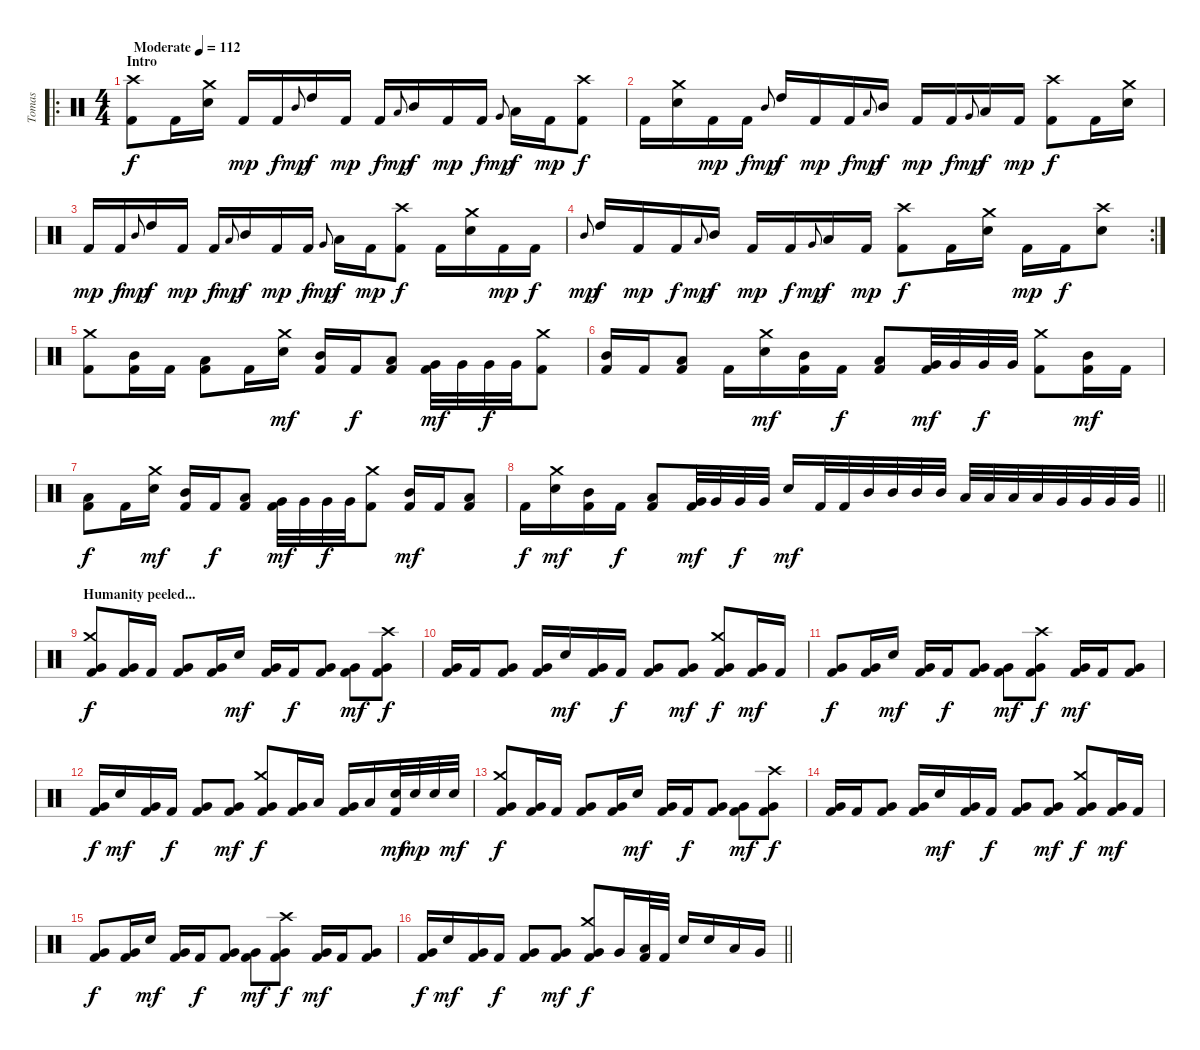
\track ("Tomas" "Tomas") {instrument percussion}
\staff {score}
\articulation defaults
\ro
\ts (4 4)
\section ("" "Intro")
\tempo (112 "Moderate")
\clef neutral
\ks c
("Crash high (hit)" "Kick (hit) 2").8{dy f} "Kick (hit) 2".16 ("Crash medium (hit)" "Electric Snare (hit)").16 "Kick (hit) 2".16{dy mp} "Kick (hit) 2".16{dy f} "Mid Tom (hit)".8{gr onbeat dy mp} "High Tom (hit)".16{dy f} "Kick (hit) 2".16{dy mp} "Kick (hit) 2".16{dy f} "Low Tom (hit)".8{gr onbeat dy mp} "Mid Tom (hit)".16{dy f} "Kick (hit) 2".16{dy mp} "Kick (hit) 2".16{dy f} "Very Low Tom (hit)".8{gr onbeat dy mp} "Low Tom (hit)".16{dy f} "Kick (hit) 2".16{dy mp} ("Crash high (hit)" "Kick (hit) 2").8{dy f} |
"Kick (hit) 2".16 ("Crash medium (hit)" "Electric Snare (hit)").16 "Kick (hit) 2".16{dy mp} "Kick (hit) 2".16{dy f} "Mid Tom (hit)".8{gr onbeat dy mp} "High Tom (hit)".16{dy f} "Kick (hit) 2".16{dy mp} "Kick (hit) 2".16{dy f} "Low Tom (hit)".8{gr onbeat dy mp} "Mid Tom (hit)".16{dy f} "Kick (hit) 2".16{dy mp} "Kick (hit) 2".16{dy f} "Very Low Tom (hit)".8{gr onbeat dy mp} "Low Tom (hit)".16{dy f} "Kick (hit) 2".16{dy mp} ("Crash high (hit)" "Kick (hit) 2").8{dy f} "Kick (hit) 2".16 ("Crash medium (hit)" "Electric Snare (hit)").16 |
"Kick (hit) 2".16{dy mp} "Kick (hit) 2".16{dy f} "Mid Tom (hit)".8{gr onbeat dy mp} "High Tom (hit)".16{dy f} "Kick (hit) 2".16{dy mp} "Kick (hit) 2".16{dy f} "Low Tom (hit)".8{gr onbeat dy mp} "Mid Tom (hit)".16{dy f} "Kick (hit) 2".16{dy mp} "Kick (hit) 2".16{dy f} "Very Low Tom (hit)".8{gr onbeat dy mp} "Low Tom (hit)".16{dy f} "Kick (hit) 2".16{dy mp} ("Crash high (hit)" "Kick (hit) 2").8{dy f} "Kick (hit) 2".16 ("Crash medium (hit)" "Electric Snare (hit)").16 "Kick (hit) 2".16{dy mp} "Kick (hit) 2".16{dy f} |
\rc 2 "Mid Tom (hit)".8{gr onbeat dy mp} "High Tom (hit)".16{dy f} "Kick (hit) 2".16{dy mp} "Kick (hit) 2".16{dy f} "Low Tom (hit)".8{gr onbeat dy mp} "Mid Tom (hit)".16{dy f} "Kick (hit) 2".16{dy mp} "Kick (hit) 2".16{dy f} "Very Low Tom (hit)".8{gr onbeat dy mp} "Low Tom (hit)".16{dy f} "Kick (hit) 2".16{dy mp}
("Crash high (hit)" "Kick (hit) 2").8{dy f} "Kick (hit) 2".16 ("Crash medium (hit)" "Electric Snare (hit)").16 "Kick (hit) 2".16{dy mp} "Kick (hit) 2".16{dy f} ("Crash high (hit)" "Electric Snare (hit)").8 |
("Crash medium (hit)" "Kick (hit) 2").8 ("Mid Tom (hit)" "Kick (hit) 2").16 "Kick (hit) 2".16 ("Low Tom (hit)" "Kick (hit) 2").8 "Kick (hit) 2".16 ("Crash medium (hit)" "Electric Snare (hit)").16{dy mf} ("Mid Tom (hit)" "Kick (hit) 2").16 "Kick (hit) 2".16{dy f} ("Low Tom (hit)" "Kick (hit) 2").8 ("Very Low Tom (hit)" "Kick (hit) 2").32{dy mf} "Very Low Tom (hit)".32 "Very Low Tom (hit)".32{dy f} "Very Low Tom (hit)".32 ("Crash medium (hit)" "Kick (hit) 2").8 |
("Mid Tom (hit)" "Kick (hit) 2").16 "Kick (hit) 2".16 ("Low Tom (hit)" "Kick (hit) 2").8 "Kick (hit) 2".16 ("Crash medium (hit)" "Electric Snare (hit)").16{dy mf} ("Mid Tom (hit)" "Kick (hit) 2").16 "Kick (hit) 2".16{dy f} ("Low Tom (hit)" "Kick (hit) 2").8 ("Very Low Tom (hit)" "Kick (hit) 2").32{dy mf} "Very Low Tom (hit)".32 "Very Low Tom (hit)".32{dy f} "Very Low Tom (hit)".32 ("Crash medium (hit)" "Kick (hit) 2").8 ("Mid Tom (hit)" "Kick (hit) 2").16{dy mf} "Kick (hit) 2".16 |
("Low Tom (hit)" "Kick (hit) 2").8{dy f} "Kick (hit) 2".16 ("Crash medium (hit)" "Electric Snare (hit)").16{dy mf} ("Mid Tom (hit)" "Kick (hit) 2").16 "Kick (hit) 2".16{dy f} ("Low Tom (hit)" "Kick (hit) 2").8 ("Very Low Tom (hit)" "Kick (hit) 2").32{dy mf} "Very Low Tom (hit)".32 "Very Low Tom (hit)".32{dy f} "Very Low Tom (hit)".32 ("Crash medium (hit)" "Kick (hit) 2").8 ("Mid Tom (hit)" "Kick (hit) 2").16{dy mf} "Kick (hit) 2".16 ("Low Tom (hit)" "Kick (hit) 2").8 |
\barLineRight lightlight "Kick (hit) 2".16{dy f}
("Crash medium (hit)" "Electric Snare (hit)").16{dy mf} ("Mid Tom (hit)" "Kick (hit) 2").16 "Kick (hit) 2".16{dy f} ("Low Tom (hit)" "Kick (hit) 2").8 ("Very Low Tom (hit)" "Kick (hit) 2").32{dy mf} "Very Low Tom (hit)".32 "Very Low Tom (hit)".32{dy f} "Very Low Tom (hit)".32 "Electric Snare (hit)".16{dy mf} "Kick (hit) 2".32 "Kick (hit) 2".32 "Mid Tom (hit)".32 "Mid Tom (hit)".32 "Mid Tom (hit)".32 "Mid Tom (hit)".32 "Low Tom (hit)".32 "Low Tom (hit)".32 "Low Tom (hit)".32 "Low Tom (hit)".32 "Very Low Tom (hit)".32 "Very Low Tom (hit)".32 "Very Low Tom (hit)".32 "Very Low Tom (hit)".32 |
\section ("" "Humanity peeled...")
("Crash medium (hit)" "Very Low Tom (hit)" "Kick (hit) 2").8{dy f} ("Very Low Tom (hit)" "Kick (hit) 2").16 "Kick (hit) 2".16 ("Very Low Tom (hit)" "Kick (hit) 2").8 ("Very Low Tom (hit)" "Kick (hit) 2").16 "Electric Snare (hit)".16{dy mf} ("Very Low Tom (hit)" "Kick (hit) 2").16 "Kick (hit) 2".16{dy f} ("Very Low Tom (hit)" "Kick (hit) 2").8 ("Very Low Tom (hit)" "Kick (hit) 2").8{dy mf} ("Crash high (hit)" "Very Low Tom (hit)" "Kick (hit) 2").8{dy f} |
("Very Low Tom (hit)" "Kick (hit) 2").16 "Kick (hit) 2".16 ("Very Low Tom (hit)" "Kick (hit) 2").8 ("Very Low Tom (hit)" "Kick (hit) 2").16 "Electric Snare (hit)".16{dy mf} ("Very Low Tom (hit)" "Kick (hit) 2").16 "Kick (hit) 2".16{dy f} ("Very Low Tom (hit)" "Kick (hit) 2").8 ("Very Low Tom (hit)" "Kick (hit) 2").8{dy mf} ("Crash medium (hit)" "Very Low Tom (hit)" "Kick (hit) 2").8{dy f} ("Very Low Tom (hit)" "Kick (hit) 2").16{dy mf} "Kick (hit) 2".16 |
("Very Low Tom (hit)" "Kick (hit) 2").8{dy f} ("Very Low Tom (hit)" "Kick (hit) 2").16 "Electric Snare (hit)".16{dy mf} ("Very Low Tom (hit)" "Kick (hit) 2").16 "Kick (hit) 2".16{dy f} ("Very Low Tom (hit)" "Kick (hit) 2").8 ("Very Low Tom (hit)" "Kick (hit) 2").8{dy mf} ("Crash high (hit)" "Very Low Tom (hit)" "Kick (hit) 2").8{dy f} ("Very Low Tom (hit)" "Kick (hit) 2").16{dy mf} "Kick (hit) 2".16 ("Very Low Tom (hit)" "Kick (hit) 2").8 |
("Very Low Tom (hit)" "Kick (hit) 2").16{dy f} "Electric Snare (hit)".16{dy mf} ("Very Low Tom (hit)" "Kick (hit) 2").16 "Kick (hit) 2".16{dy f} ("Very Low Tom (hit)" "Kick (hit) 2").8 ("Very Low Tom (hit)" "Kick (hit) 2").8{dy mf} ("Crash medium (hit)" "Very Low Tom (hit)" "Kick (hit) 2").8{dy f} ("Very Low Tom (hit)" "Kick (hit) 2").16 "Low Tom (hit)".16 ("Very Low Tom (hit)" "Kick (hit) 2").16 "Low Tom (hit)".16 ("Electric Snare (hit)" "Kick (hit) 2").32{dy mf} "Electric Snare (hit)".32{dy mp} "Electric Snare (hit)".32 "Electric Snare (hit)".32{dy mf} |
("Crash medium (hit)" "Very Low Tom (hit)" "Kick (hit) 2").8{dy f} ("Very Low Tom (hit)" "Kick (hit) 2").16 "Kick (hit) 2".16 ("Very Low Tom (hit)" "Kick (hit) 2").8 ("Very Low Tom (hit)" "Kick (hit) 2").16 "Electric Snare (hit)".16{dy mf} ("Very Low Tom (hit)" "Kick (hit) 2").16 "Kick (hit) 2".16{dy f} ("Very Low Tom (hit)" "Kick (hit) 2").8 ("Very Low Tom (hit)" "Kick (hit) 2").8{dy mf} ("Crash high (hit)" "Very Low Tom (hit)" "Kick (hit) 2").8{dy f} |
("Very Low Tom (hit)" "Kick (hit) 2").16 "Kick (hit) 2".16 ("Very Low Tom (hit)" "Kick (hit) 2").8 ("Very Low Tom (hit)" "Kick (hit) 2").16 "Electric Snare (hit)".16{dy mf} ("Very Low Tom (hit)" "Kick (hit) 2").16 "Kick (hit) 2".16{dy f} ("Very Low Tom (hit)" "Kick (hit) 2").8 ("Very Low Tom (hit)" "Kick (hit) 2").8{dy mf} ("Crash medium (hit)" "Very Low Tom (hit)" "Kick (hit) 2").8{dy f} ("Very Low Tom (hit)" "Kick (hit) 2").16{dy mf} "Kick (hit) 2".16 |
("Very Low Tom (hit)" "Kick (hit) 2").8{dy f} ("Very Low Tom (hit)" "Kick (hit) 2").16 "Electric Snare (hit)".16{dy mf} ("Very Low Tom (hit)" "Kick (hit) 2").16 "Kick (hit) 2".16{dy f} ("Very Low Tom (hit)" "Kick (hit) 2").8 ("Very Low Tom (hit)" "Kick (hit) 2").8{dy mf} ("Crash high (hit)" "Very Low Tom (hit)" "Kick (hit) 2").8{dy f} ("Very Low Tom (hit)" "Kick (hit) 2").16{dy mf} "Kick (hit) 2".16 ("Very Low Tom (hit)" "Kick (hit) 2").8 |
\barLineRight lightlight
("Very Low Tom (hit)" "Kick (hit) 2").16{dy f} "Electric Snare (hit)".16{dy mf} ("Very Low Tom (hit)" "Kick (hit) 2").16 "Kick (hit) 2".16{dy f} ("Very Low Tom (hit)" "Kick (hit) 2").8 ("Very Low Tom (hit)" "Kick (hit) 2").8{dy mf} ("Crash medium (hit)" "Very Low Tom (hit)" "Kick (hit) 2").8{dy f} "Very Low Tom (hit)".16 ("Low Tom (hit)" "Kick (hit) 2").32 "Kick (hit) 2".32 "Electric Snare (hit)".16 "Electric Snare (hit)".16 "Low Tom (hit)".16 "Very Low Tom (hit)".16
